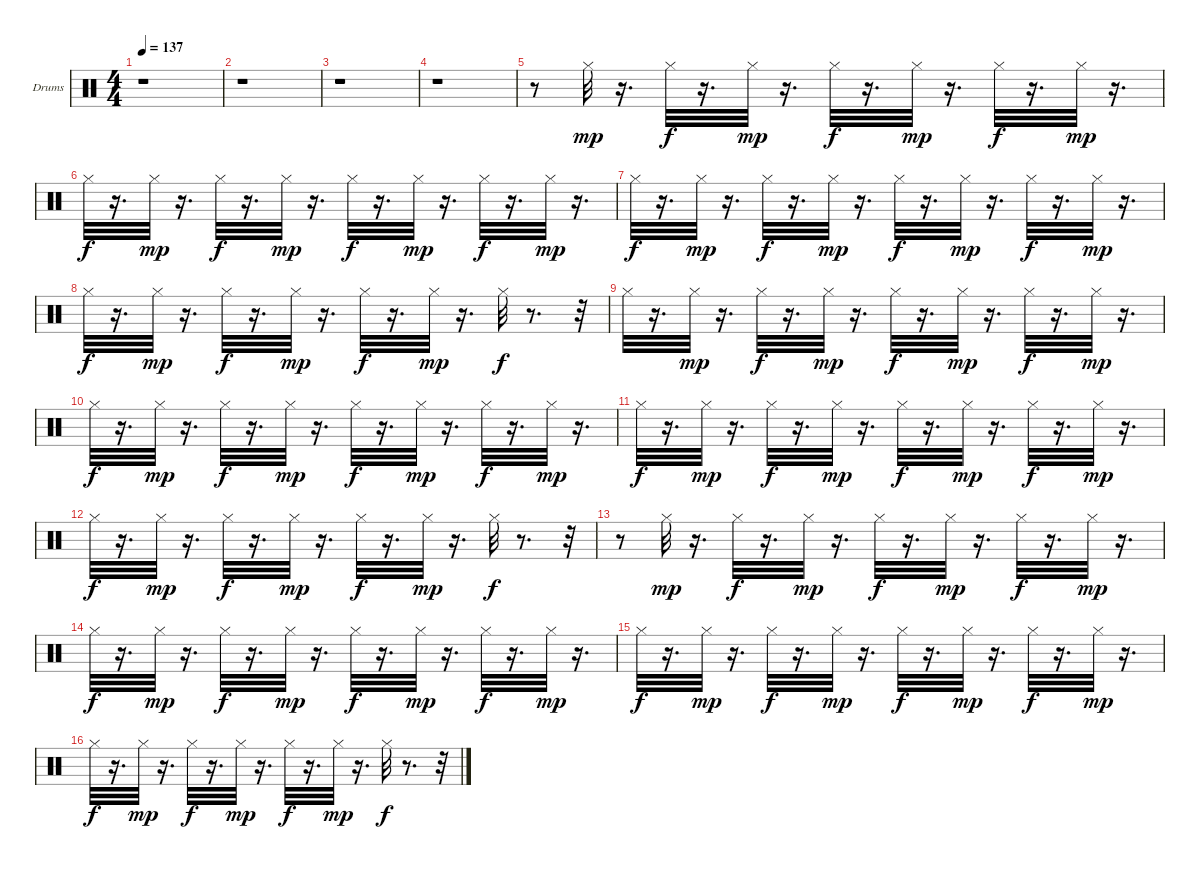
\bracketExtendMode groupsimilarinstruments
\firstSystemTrackNameOrientation horizontal
\otherSystemsTrackNameOrientation horizontal
\track ("Drumkit" "Drums") {instrument percussion}
\staff {score}
\articulation defaults
\ts (4 4)
\tempo 137
\clef neutral
\ks c
r.1{dy mp} |
r.1 |
r.1 |
r.1 |
r.8 "Hi-Hat (closed)".32 r.16{d} "Hi-Hat (closed)".32{dy f} r.16{d} "Hi-Hat (closed)".32{dy mp} r.16{d} "Hi-Hat (closed)".32{dy f} r.16{d} "Hi-Hat (closed)".32{dy mp} r.16{d} "Hi-Hat (closed)".32{dy f} r.16{d} "Hi-Hat (closed)".32{dy mp} r.16{d} |
"Hi-Hat (closed)".32{dy f} r.16{d} "Hi-Hat (closed)".32{dy mp} r.16{d} "Hi-Hat (closed)".32{dy f} r.16{d} "Hi-Hat (closed)".32{dy mp} r.16{d} "Hi-Hat (closed)".32{dy f} r.16{d} "Hi-Hat (closed)".32{dy mp} r.16{d} "Hi-Hat (closed)".32{dy f} r.16{d} "Hi-Hat (closed)".32{dy mp} r.16{d} |
"Hi-Hat (closed)".32{dy f} r.16{d} "Hi-Hat (closed)".32{dy mp} r.16{d} "Hi-Hat (closed)".32{dy f} r.16{d} "Hi-Hat (closed)".32{dy mp} r.16{d} "Hi-Hat (closed)".32{dy f} r.16{d} "Hi-Hat (closed)".32{dy mp} r.16{d} "Hi-Hat (closed)".32{dy f} r.16{d} "Hi-Hat (closed)".32{dy mp} r.16{d} |
"Hi-Hat (closed)".32{dy f} r.16{d} "Hi-Hat (closed)".32{dy mp} r.16{d} "Hi-Hat (closed)".32{dy f} r.16{d} "Hi-Hat (closed)".32{dy mp} r.16{d} "Hi-Hat (closed)".32{dy f} r.16{d} "Hi-Hat (closed)".32{dy mp} r.16{d} "Hi-Hat (closed)".32{dy f} r.8{d} r.32 |
"Hi-Hat (closed)".32 r.16{d} "Hi-Hat (closed)".32{dy mp} r.16{d} "Hi-Hat (closed)".32{dy f} r.16{d} "Hi-Hat (closed)".32{dy mp} r.16{d} "Hi-Hat (closed)".32{dy f} r.16{d} "Hi-Hat (closed)".32{dy mp} r.16{d} "Hi-Hat (closed)".32{dy f} r.16{d} "Hi-Hat (closed)".32{dy mp} r.16{d} |
"Hi-Hat (closed)".32{dy f} r.16{d} "Hi-Hat (closed)".32{dy mp} r.16{d} "Hi-Hat (closed)".32{dy f} r.16{d} "Hi-Hat (closed)".32{dy mp} r.16{d} "Hi-Hat (closed)".32{dy f} r.16{d} "Hi-Hat (closed)".32{dy mp} r.16{d} "Hi-Hat (closed)".32{dy f} r.16{d} "Hi-Hat (closed)".32{dy mp} r.16{d} |
"Hi-Hat (closed)".32{dy f} r.16{d} "Hi-Hat (closed)".32{dy mp} r.16{d} "Hi-Hat (closed)".32{dy f} r.16{d} "Hi-Hat (closed)".32{dy mp} r.16{d} "Hi-Hat (closed)".32{dy f} r.16{d} "Hi-Hat (closed)".32{dy mp} r.16{d} "Hi-Hat (closed)".32{dy f} r.16{d} "Hi-Hat (closed)".32{dy mp} r.16{d} |
"Hi-Hat (closed)".32{dy f} r.16{d} "Hi-Hat (closed)".32{dy mp} r.16{d} "Hi-Hat (closed)".32{dy f} r.16{d} "Hi-Hat (closed)".32{dy mp} r.16{d} "Hi-Hat (closed)".32{dy f} r.16{d} "Hi-Hat (closed)".32{dy mp} r.16{d} "Hi-Hat (closed)".32{dy f} r.8{d} r.32 |
r.8 "Hi-Hat (closed)".32{dy mp} r.16{d} "Hi-Hat (closed)".32{dy f} r.16{d} "Hi-Hat (closed)".32{dy mp} r.16{d} "Hi-Hat (closed)".32{dy f} r.16{d} "Hi-Hat (closed)".32{dy mp} r.16{d} "Hi-Hat (closed)".32{dy f} r.16{d} "Hi-Hat (closed)".32{dy mp} r.16{d} |
"Hi-Hat (closed)".32{dy f} r.16{d} "Hi-Hat (closed)".32{dy mp} r.16{d} "Hi-Hat (closed)".32{dy f} r.16{d} "Hi-Hat (closed)".32{dy mp} r.16{d} "Hi-Hat (closed)".32{dy f} r.16{d} "Hi-Hat (closed)".32{dy mp} r.16{d} "Hi-Hat (closed)".32{dy f} r.16{d} "Hi-Hat (closed)".32{dy mp} r.16{d} |
"Hi-Hat (closed)".32{dy f} r.16{d} "Hi-Hat (closed)".32{dy mp} r.16{d} "Hi-Hat (closed)".32{dy f} r.16{d} "Hi-Hat (closed)".32{dy mp} r.16{d} "Hi-Hat (closed)".32{dy f} r.16{d} "Hi-Hat (closed)".32{dy mp} r.16{d} "Hi-Hat (closed)".32{dy f} r.16{d} "Hi-Hat (closed)".32{dy mp} r.16{d} |
"Hi-Hat (closed)".32{dy f} r.16{d} "Hi-Hat (closed)".32{dy mp} r.16{d} "Hi-Hat (closed)".32{dy f} r.16{d} "Hi-Hat (closed)".32{dy mp} r.16{d} "Hi-Hat (closed)".32{dy f} r.16{d} "Hi-Hat (closed)".32{dy mp} r.16{d} "Hi-Hat (closed)".32{dy f} r.8{d} r.32
